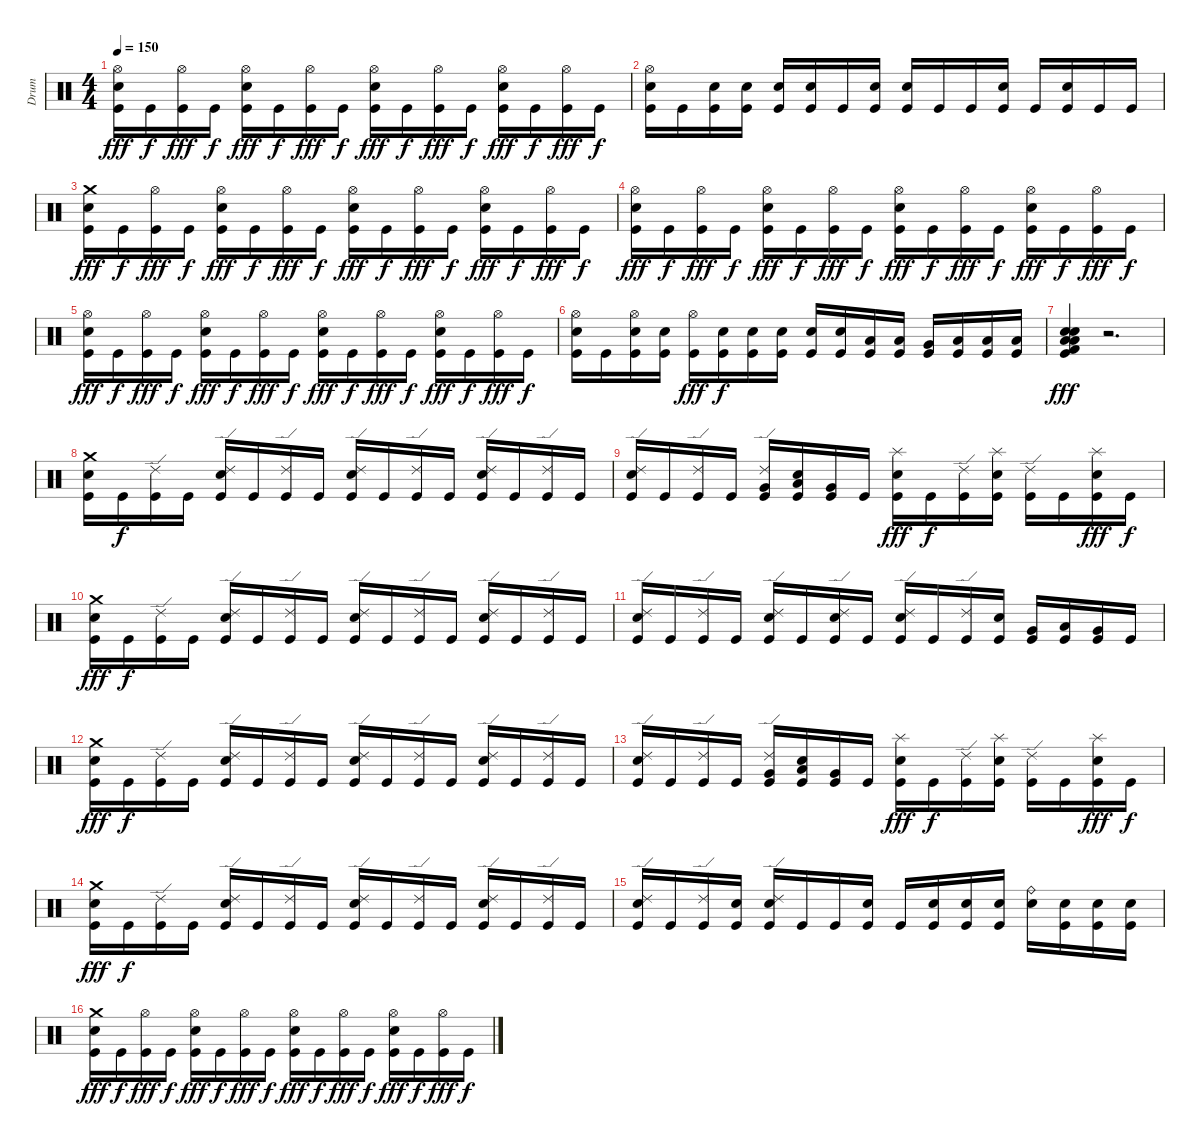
\track ("Drum" "Drum") {instrument percussion}
\staff {score}
\articulation defaults
\ts (4 4)
\tempo 150
\clef neutral
\ks c
("Hi-Hat (open)" "Snare (hit) 2" "Kick (hit)").16{dy fff} "Kick (hit)".16{dy f} ("Hi-Hat (open)" "Kick (hit)").16{dy fff} "Kick (hit)".16{dy f} ("Hi-Hat (open)" "Snare (hit) 2" "Kick (hit)").16{dy fff} "Kick (hit)".16{dy f} ("Hi-Hat (open)" "Kick (hit)").16{dy fff} "Kick (hit)".16{dy f} ("Hi-Hat (open)" "Snare (hit) 2" "Kick (hit)").16{dy fff} "Kick (hit)".16{dy f} ("Hi-Hat (open)" "Kick (hit)").16{dy fff} "Kick (hit)".16{dy f} ("Hi-Hat (open)" "Snare (hit) 2" "Kick (hit)").16{dy fff} "Kick (hit)".16{dy f} ("Hi-Hat (open)" "Kick (hit)").16{dy fff} "Kick (hit)".16{dy f} |
("Hi-Hat (open)" "Snare (hit) 2" "Kick (hit)").16 "Kick (hit)".16 ("Snare (hit) 2" "Kick (hit)").16 ("Snare (hit) 2" "Kick (hit)").16 ("Snare (hit) 2" "Kick (hit)").16 ("Snare (hit) 2" "Kick (hit)").16 "Kick (hit)".16 ("Snare (hit) 2" "Kick (hit)").16 ("Snare (hit) 2" "Kick (hit)").16 "Kick (hit)".16 "Kick (hit)".16 ("Snare (hit) 2" "Kick (hit)").16 "Kick (hit)".16 ("Snare (hit) 2" "Kick (hit)").16 "Kick (hit)".16 "Kick (hit)".16 |
("Crash medium (hit)" "Snare (hit) 2" "Kick (hit)").16{dy fff} "Kick (hit)".16{dy f} ("Hi-Hat (open)" "Kick (hit)").16{dy fff} "Kick (hit)".16{dy f} ("Hi-Hat (open)" "Snare (hit) 2" "Kick (hit)").16{dy fff} "Kick (hit)".16{dy f} ("Hi-Hat (open)" "Kick (hit)").16{dy fff} "Kick (hit)".16{dy f} ("Hi-Hat (open)" "Snare (hit) 2" "Kick (hit)").16{dy fff} "Kick (hit)".16{dy f} ("Hi-Hat (open)" "Kick (hit)").16{dy fff} "Kick (hit)".16{dy f} ("Hi-Hat (open)" "Snare (hit) 2" "Kick (hit)").16{dy fff} "Kick (hit)".16{dy f} ("Hi-Hat (open)" "Kick (hit)").16{dy fff} "Kick (hit)".16{dy f} |
("Hi-Hat (open)" "Snare (hit) 2" "Kick (hit)").16{dy fff} "Kick (hit)".16{dy f} ("Hi-Hat (open)" "Kick (hit)").16{dy fff} "Kick (hit)".16{dy f} ("Hi-Hat (open)" "Snare (hit) 2" "Kick (hit)").16{dy fff} "Kick (hit)".16{dy f} ("Hi-Hat (open)" "Kick (hit)").16{dy fff} "Kick (hit)".16{dy f} ("Hi-Hat (open)" "Snare (hit) 2" "Kick (hit)").16{dy fff} "Kick (hit)".16{dy f} ("Hi-Hat (open)" "Kick (hit)").16{dy fff} "Kick (hit)".16{dy f} ("Hi-Hat (open)" "Snare (hit) 2" "Kick (hit)").16{dy fff} "Kick (hit)".16{dy f} ("Hi-Hat (open)" "Kick (hit)").16{dy fff} "Kick (hit)".16{dy f} |
("Hi-Hat (open)" "Snare (hit) 2" "Kick (hit)").16{dy fff} "Kick (hit)".16{dy f} ("Hi-Hat (open)" "Kick (hit)").16{dy fff} "Kick (hit)".16{dy f} ("Hi-Hat (open)" "Snare (hit) 2" "Kick (hit)").16{dy fff} "Kick (hit)".16{dy f} ("Hi-Hat (open)" "Kick (hit)").16{dy fff} "Kick (hit)".16{dy f} ("Hi-Hat (open)" "Snare (hit) 2" "Kick (hit)").16{dy fff} "Kick (hit)".16{dy f} ("Hi-Hat (open)" "Kick (hit)").16{dy fff} "Kick (hit)".16{dy f} ("Hi-Hat (open)" "Snare (hit) 2" "Kick (hit)").16{dy fff} "Kick (hit)".16{dy f} ("Hi-Hat (open)" "Kick (hit)").16{dy fff} "Kick (hit)".16{dy f} |
("Hi-Hat (open)" "Snare (hit) 2" "Kick (hit)").16 "Kick (hit)".16 ("Hi-Hat (open)" "Snare (hit) 2" "Kick (hit)").16 ("Snare (hit) 2" "Kick (hit)").16 ("Hi-Hat (open)" "Kick (hit)").16{dy fff} ("Snare (hit) 2" "Kick (hit)").16{dy f} ("Snare (hit) 2" "Kick (hit)").16 ("Snare (hit) 2" "Kick (hit)").16 ("Snare (hit) 2" "Kick (hit)").16 ("Snare (hit) 2" "Kick (hit)").16 ("Low Floor Tom (hit)" "Kick (hit)").16 ("Low Floor Tom (hit)" "Kick (hit)").16 ("Very Low Tom (hit)" "Kick (hit)").16 ("Low Floor Tom (hit)" "Kick (hit)").16 ("Low Tom (hit)" "Kick (hit)").16 ("Low Floor Tom (hit)" "Kick (hit)").16 |
("Kick (hit) 2" "Low Tom (hit)" "Snare (hit) 2" "Snare (hit) 2" "Low Tom (hit)" "Kick (hit)").4{dy fff} r.2{d} |
("Crash medium (hit)" "Snare (hit) 2" "Kick (hit)").16 "Kick (hit)".16{dy f} ("Ride (edge) 2" "Kick (hit)").16 "Kick (hit)".16 ("Ride (edge) 2" "Snare (hit) 2" "Kick (hit)").16 "Kick (hit)".16 ("Ride (edge) 2" "Kick (hit)").16 "Kick (hit)".16 ("Ride (edge) 2" "Snare (hit) 2" "Kick (hit)").16 "Kick (hit)".16 ("Ride (edge) 2" "Kick (hit)").16 "Kick (hit)".16 ("Ride (edge) 2" "Snare (hit) 2" "Kick (hit)").16 "Kick (hit)".16 ("Ride (edge) 2" "Kick (hit)").16 "Kick (hit)".16 |
("Ride (edge) 2" "Snare (hit) 2" "Kick (hit)").16 "Kick (hit)".16 ("Ride (edge) 2" "Kick (hit)").16 "Kick (hit)".16 ("Ride (edge) 2" "Very Low Tom (hit)" "Kick (hit)").16 ("Snare (hit) 2" "Low Floor Tom (hit)" "Kick (hit)").16 ("Very Low Tom (hit)" "Kick (hit)").16 "Kick (hit)".16 ("Splash (hit)" "Snare (hit) 2" "Kick (hit)").16{dy fff} "Kick (hit)".16{dy f} ("Ride (edge) 2" "Kick (hit)").16 ("Splash (hit)" "Snare (hit) 2" "Kick (hit)").16 ("Ride (edge) 2" "Kick (hit)").16 "Kick (hit)".16 ("Splash (hit)" "Snare (hit) 2" "Kick (hit)").16{dy fff} "Kick (hit)".16{dy f} |
("Crash medium (hit)" "Snare (hit) 2" "Kick (hit)").16{dy fff} "Kick (hit)".16{dy f} ("Ride (edge) 2" "Kick (hit)").16 "Kick (hit)".16 ("Ride (edge) 2" "Snare (hit) 2" "Kick (hit)").16 "Kick (hit)".16 ("Ride (edge) 2" "Kick (hit)").16 "Kick (hit)".16 ("Ride (edge) 2" "Snare (hit) 2" "Kick (hit)").16 "Kick (hit)".16 ("Ride (edge) 2" "Kick (hit)").16 "Kick (hit)".16 ("Ride (edge) 2" "Snare (hit) 2" "Kick (hit)").16 "Kick (hit)".16 ("Ride (edge) 2" "Kick (hit)").16 "Kick (hit)".16 |
("Ride (edge) 2" "Snare (hit) 2" "Kick (hit)").16 "Kick (hit)".16 ("Ride (edge) 2" "Kick (hit)").16 "Kick (hit)".16 ("Ride (edge) 2" "Snare (hit) 2" "Kick (hit)").16 "Kick (hit)".16 ("Ride (edge) 2" "Snare (hit) 2" "Kick (hit)").16 "Kick (hit)".16 ("Ride (edge) 2" "Snare (hit) 2" "Kick (hit)").16 "Kick (hit)".16 ("Ride (edge) 2" "Kick (hit)").16 ("Snare (hit) 2" "Kick (hit)").16 ("Very Low Tom (hit)" "Kick (hit)").16 ("Low Floor Tom (hit)" "Kick (hit)").16 ("Very Low Tom (hit)" "Kick (hit)").16 "Kick (hit)".16 |
("Crash medium (hit)" "Snare (hit) 2" "Kick (hit)").16{dy fff} "Kick (hit)".16{dy f} ("Ride (edge) 2" "Kick (hit)").16 "Kick (hit)".16 ("Ride (edge) 2" "Snare (hit) 2" "Kick (hit)").16 "Kick (hit)".16 ("Ride (edge) 2" "Kick (hit)").16 "Kick (hit)".16 ("Ride (edge) 2" "Snare (hit) 2" "Kick (hit)").16 "Kick (hit)".16 ("Ride (edge) 2" "Kick (hit)").16 "Kick (hit)".16 ("Ride (edge) 2" "Snare (hit) 2" "Kick (hit)").16 "Kick (hit)".16 ("Ride (edge) 2" "Kick (hit)").16 "Kick (hit)".16 |
("Ride (edge) 2" "Snare (hit) 2" "Kick (hit)").16 "Kick (hit)".16 ("Ride (edge) 2" "Kick (hit)").16 "Kick (hit)".16 ("Ride (edge) 2" "Very Low Tom (hit)" "Kick (hit)").16 ("Snare (hit) 2" "Low Floor Tom (hit)" "Kick (hit)").16 ("Very Low Tom (hit)" "Kick (hit)").16 "Kick (hit)".16 ("Splash (hit)" "Snare (hit) 2" "Kick (hit)").16{dy fff} "Kick (hit)".16{dy f} ("Ride (edge) 2" "Kick (hit)").16 ("Splash (hit)" "Snare (hit) 2" "Kick (hit)").16 ("Ride (edge) 2" "Kick (hit)").16 "Kick (hit)".16 ("Splash (hit)" "Snare (hit) 2" "Kick (hit)").16{dy fff} "Kick (hit)".16{dy f} |
("Crash medium (hit)" "Snare (hit) 2" "Kick (hit)").16{dy fff} "Kick (hit)".16{dy f} ("Ride (edge) 2" "Kick (hit)").16 "Kick (hit)".16 ("Ride (edge) 2" "Snare (hit) 2" "Kick (hit)").16 "Kick (hit)".16 ("Ride (edge) 2" "Kick (hit)").16 "Kick (hit)".16 ("Ride (edge) 2" "Snare (hit) 2" "Kick (hit)").16 "Kick (hit)".16 ("Ride (edge) 2" "Kick (hit)").16 "Kick (hit)".16 ("Ride (edge) 2" "Snare (hit) 2" "Kick (hit)").16 "Kick (hit)".16 ("Ride (edge) 2" "Kick (hit)").16 "Kick (hit)".16 |
("Ride (edge) 2" "Snare (hit) 2" "Kick (hit)").16 "Kick (hit)".16 ("Ride (edge) 2" "Kick (hit)").16 ("Snare (hit) 2" "Kick (hit)").16 ("Ride (edge) 2" "Snare (hit) 2" "Kick (hit)").16 "Kick (hit)".16 "Kick (hit)".16 ("Snare (hit) 2" "Kick (hit)").16 "Kick (hit)".16 ("Snare (hit) 2" "Kick (hit)").16 ("Snare (hit) 2" "Kick (hit)").16 ("Snare (hit) 2" "Kick (hit)").16 ("Snare (hit) 2" "Ride (bell)").16 ("Snare (hit) 2" "Kick (hit)").16 ("Snare (hit) 2" "Kick (hit)").16 ("Snare (hit) 2" "Kick (hit)").16 |
("Crash medium (hit)" "Snare (hit) 2" "Kick (hit)").16{dy fff} "Kick (hit)".16{dy f} ("Hi-Hat (open)" "Kick (hit)").16{dy fff} "Kick (hit)".16{dy f} ("Hi-Hat (open)" "Snare (hit) 2" "Kick (hit)").16{dy fff} "Kick (hit)".16{dy f} ("Hi-Hat (open)" "Kick (hit)").16{dy fff} "Kick (hit)".16{dy f} ("Hi-Hat (open)" "Snare (hit) 2" "Kick (hit)").16{dy fff} "Kick (hit)".16{dy f} ("Hi-Hat (open)" "Kick (hit)").16{dy fff} "Kick (hit)".16{dy f} ("Hi-Hat (open)" "Snare (hit) 2" "Kick (hit)").16{dy fff} "Kick (hit)".16{dy f} ("Hi-Hat (open)" "Kick (hit)").16{dy fff} "Kick (hit)".16{dy f}
